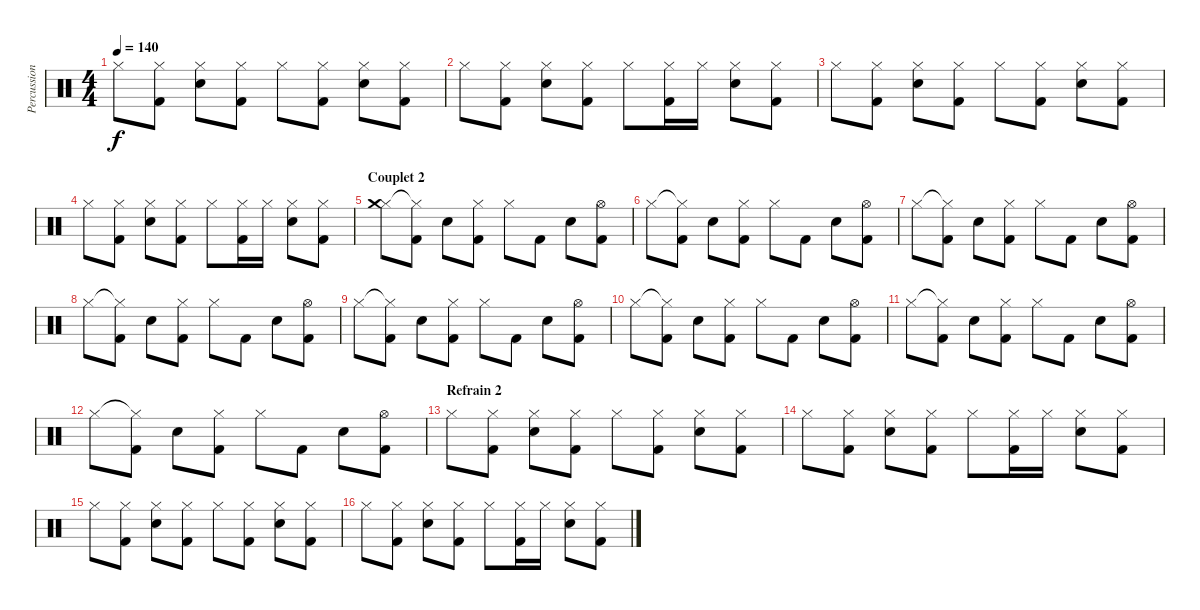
\track ("Percussions" "Percussion") {instrument percussion}
\staff {score}
\articulation defaults
\ts (4 4)
\tempo 140
\clef neutral
\ks c "Hi-Hat (closed)".8{dy f}
("Hi-Hat (closed)" "Kick (hit) 2").8 ("Hi-Hat (closed)" "Snare (hit) 2").8 ("Hi-Hat (closed)" "Kick (hit) 2").8 "Hi-Hat (closed)".8 ("Hi-Hat (closed)" "Kick (hit) 2").8 ("Hi-Hat (closed)" "Snare (hit) 2").8 ("Hi-Hat (closed)" "Kick (hit) 2").8 |
"Hi-Hat (closed)".8 ("Hi-Hat (closed)" "Kick (hit) 2").8 ("Hi-Hat (closed)" "Snare (hit) 2").8 ("Hi-Hat (closed)" "Kick (hit) 2").8 "Hi-Hat (closed)".8 ("Hi-Hat (closed)" "Kick (hit) 2").16 "Hi-Hat (closed)".16 ("Hi-Hat (closed)" "Snare (hit) 2").8 ("Hi-Hat (closed)" "Kick (hit) 2").8 |
"Hi-Hat (closed)".8 ("Hi-Hat (closed)" "Kick (hit) 2").8 ("Hi-Hat (closed)" "Snare (hit) 2").8 ("Hi-Hat (closed)" "Kick (hit) 2").8 "Hi-Hat (closed)".8 ("Hi-Hat (closed)" "Kick (hit) 2").8 ("Hi-Hat (closed)" "Snare (hit) 2").8 ("Hi-Hat (closed)" "Kick (hit) 2").8 |
"Hi-Hat (closed)".8 ("Hi-Hat (closed)" "Kick (hit) 2").8 ("Hi-Hat (closed)" "Snare (hit) 2").8 ("Hi-Hat (closed)" "Kick (hit) 2").8 "Hi-Hat (closed)".8 ("Hi-Hat (closed)" "Kick (hit) 2").16 "Hi-Hat (closed)".16 ("Hi-Hat (closed)" "Snare (hit) 2").8 ("Hi-Hat (closed)" "Kick (hit) 2").8 |
\section ("" "Couplet 2")
("Hi-Hat (closed)" "Crash medium (hit)").8 ("Hi-Hat (closed)"{t} "Kick (hit) 2").8 "Snare (hit) 2".8 ("Hi-Hat (closed)" "Kick (hit) 2").8 "Hi-Hat (closed)".8 "Kick (hit) 2".8 "Snare (hit) 2".8 ("Hi-Hat (open)" "Kick (hit) 2").8 |
"Hi-Hat (closed)".8 ("Hi-Hat (closed)"{t} "Kick (hit) 2").8 "Snare (hit) 2".8 ("Hi-Hat (closed)" "Kick (hit) 2").8 "Hi-Hat (closed)".8 "Kick (hit) 2".8 "Snare (hit) 2".8 ("Hi-Hat (open)" "Kick (hit) 2").8 |
"Hi-Hat (closed)".8 ("Hi-Hat (closed)"{t} "Kick (hit) 2").8 "Snare (hit) 2".8 ("Hi-Hat (closed)" "Kick (hit) 2").8 "Hi-Hat (closed)".8 "Kick (hit) 2".8 "Snare (hit) 2".8 ("Hi-Hat (open)" "Kick (hit) 2").8 |
"Hi-Hat (closed)".8 ("Hi-Hat (closed)"{t} "Kick (hit) 2").8 "Snare (hit) 2".8 ("Hi-Hat (closed)" "Kick (hit) 2").8 "Hi-Hat (closed)".8 "Kick (hit) 2".8 "Snare (hit) 2".8 ("Hi-Hat (open)" "Kick (hit) 2").8 |
"Hi-Hat (closed)".8 ("Hi-Hat (closed)"{t} "Kick (hit) 2").8 "Snare (hit) 2".8 ("Hi-Hat (closed)" "Kick (hit) 2").8 "Hi-Hat (closed)".8 "Kick (hit) 2".8 "Snare (hit) 2".8 ("Hi-Hat (open)" "Kick (hit) 2").8 |
"Hi-Hat (closed)".8 ("Hi-Hat (closed)"{t} "Kick (hit) 2").8 "Snare (hit) 2".8 ("Hi-Hat (closed)" "Kick (hit) 2").8 "Hi-Hat (closed)".8 "Kick (hit) 2".8 "Snare (hit) 2".8 ("Hi-Hat (open)" "Kick (hit) 2").8 |
"Hi-Hat (closed)".8 ("Hi-Hat (closed)"{t} "Kick (hit) 2").8 "Snare (hit) 2".8 ("Hi-Hat (closed)" "Kick (hit) 2").8 "Hi-Hat (closed)".8 "Kick (hit) 2".8 "Snare (hit) 2".8 ("Hi-Hat (open)" "Kick (hit) 2").8 |
"Hi-Hat (closed)".8 ("Hi-Hat (closed)"{t} "Kick (hit) 2").8 "Snare (hit) 2".8 ("Hi-Hat (closed)" "Kick (hit) 2").8 "Hi-Hat (closed)".8 "Kick (hit) 2".8 "Snare (hit) 2".8 ("Hi-Hat (open)" "Kick (hit) 2").8 |
\section ("" "Refrain 2")
"Hi-Hat (closed)".8 ("Hi-Hat (closed)" "Kick (hit) 2").8 ("Hi-Hat (closed)" "Snare (hit) 2").8 ("Hi-Hat (closed)" "Kick (hit) 2").8 "Hi-Hat (closed)".8 ("Hi-Hat (closed)" "Kick (hit) 2").8 ("Hi-Hat (closed)" "Snare (hit) 2").8 ("Hi-Hat (closed)" "Kick (hit) 2").8 |
"Hi-Hat (closed)".8 ("Hi-Hat (closed)" "Kick (hit) 2").8 ("Hi-Hat (closed)" "Snare (hit) 2").8 ("Hi-Hat (closed)" "Kick (hit) 2").8 "Hi-Hat (closed)".8 ("Hi-Hat (closed)" "Kick (hit) 2").16 "Hi-Hat (closed)".16 ("Hi-Hat (closed)" "Snare (hit) 2").8 ("Hi-Hat (closed)" "Kick (hit) 2").8 |
"Hi-Hat (closed)".8 ("Hi-Hat (closed)" "Kick (hit) 2").8 ("Hi-Hat (closed)" "Snare (hit) 2").8 ("Hi-Hat (closed)" "Kick (hit) 2").8 "Hi-Hat (closed)".8 ("Hi-Hat (closed)" "Kick (hit) 2").8 ("Hi-Hat (closed)" "Snare (hit) 2").8 ("Hi-Hat (closed)" "Kick (hit) 2").8 |
"Hi-Hat (closed)".8 ("Hi-Hat (closed)" "Kick (hit) 2").8 ("Hi-Hat (closed)" "Snare (hit) 2").8 ("Hi-Hat (closed)" "Kick (hit) 2").8 "Hi-Hat (closed)".8 ("Hi-Hat (closed)" "Kick (hit) 2").16 "Hi-Hat (closed)".16 ("Hi-Hat (closed)" "Snare (hit) 2").8 ("Hi-Hat (closed)" "Kick (hit) 2").8
